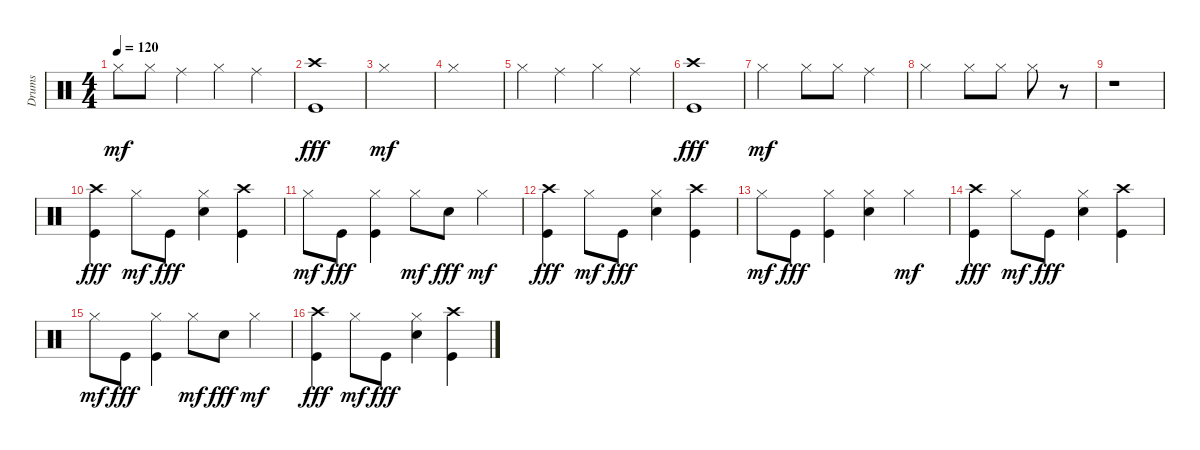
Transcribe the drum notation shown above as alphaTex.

\track ("Drums" "Drums") {instrument percussion}
\staff {score}
\articulation defaults
\ts (4 4)
\tempo 120
\clef neutral
\ks c "Hi-Hat (closed)".8{dy mf} "Hi-Hat (closed)".8 "Ride (middle)".4 "Hi-Hat (closed)".4 "Ride (middle)".4
|
("Crash high (hit)" "Kick (hit)").1{dy fff} |
"Hi-Hat (closed)".1{dy mf} |
"Hi-Hat (closed)".1 |
"Hi-Hat (closed)".4 "Ride (middle)".4 "Hi-Hat (closed)".4 "Ride (middle)".4 |
("Crash high (hit)" "Kick (hit)").1{dy fff} |
"Hi-Hat (closed)".2{dy mf} "Hi-Hat (closed)".8 "Hi-Hat (closed)".8 "Ride (middle)".4 |
"Hi-Hat (closed)".2 "Hi-Hat (closed)".8 "Hi-Hat (closed)".8 "Hi-Hat (closed)".8 r.8 |
r.1 |
("Crash high (hit)" "Kick (hit)").4{dy fff volume 12} "Hi-Hat (closed)".8{dy mf} "Kick (hit)".8{dy fff} ("Hi-Hat (closed)" "Snare (hit) 2").4 ("Crash high (hit)" "Kick (hit)").4 |
"Hi-Hat (closed)".8{dy mf} "Kick (hit)".8{dy fff} ("Hi-Hat (closed)" "Kick (hit)").4 "Hi-Hat (closed)".8{dy mf} "Snare (hit) 2".8{dy fff} "Hi-Hat (closed)".4{dy mf} |
("Crash high (hit)" "Kick (hit)").4{dy fff} "Hi-Hat (closed)".8{dy mf} "Kick (hit)".8{dy fff} ("Hi-Hat (closed)" "Snare (hit) 2").4 ("Crash high (hit)" "Kick (hit)").4 |
"Hi-Hat (closed)".8{dy mf} "Kick (hit)".8{dy fff} ("Hi-Hat (closed)" "Kick (hit)").4 ("Hi-Hat (closed)" "Snare (hit) 2").4 "Hi-Hat (closed)".4{dy mf} |
("Crash high (hit)" "Kick (hit)").4{dy fff} "Hi-Hat (closed)".8{dy mf} "Kick (hit)".8{dy fff} ("Hi-Hat (closed)" "Snare (hit) 2").4 ("Crash high (hit)" "Kick (hit)").4 |
"Hi-Hat (closed)".8{dy mf} "Kick (hit)".8{dy fff} ("Hi-Hat (closed)" "Kick (hit)").4 "Hi-Hat (closed)".8{dy mf} "Snare (hit) 2".8{dy fff} "Hi-Hat (closed)".4{dy mf} |
("Crash high (hit)" "Kick (hit)").4{dy fff} "Hi-Hat (closed)".8{dy mf} "Kick (hit)".8{dy fff} ("Hi-Hat (closed)" "Snare (hit) 2").4 ("Crash high (hit)" "Kick (hit)").4
